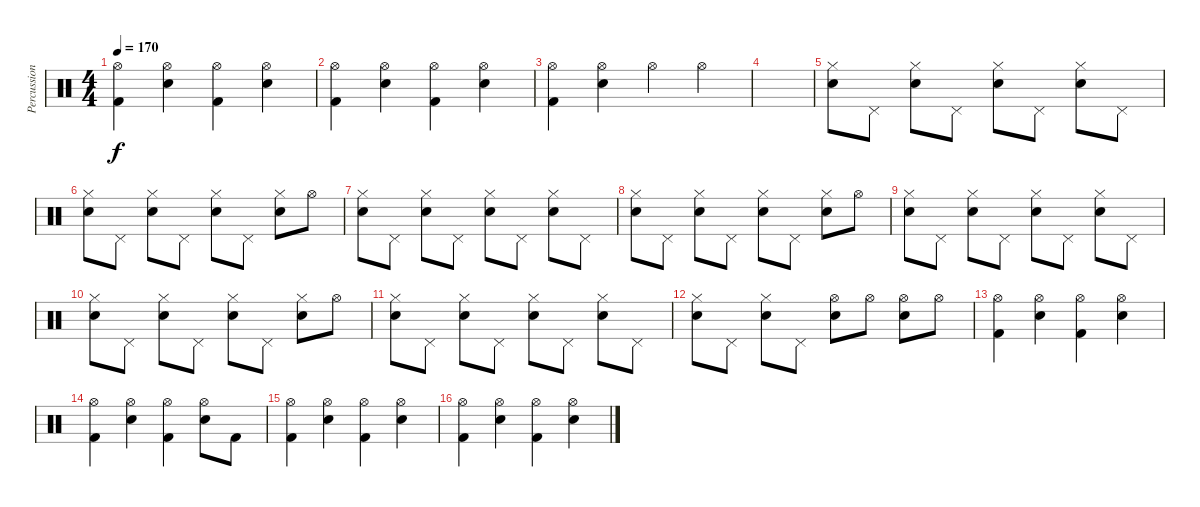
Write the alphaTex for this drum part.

\track ("Percussion" "Percussion") {instrument percussion}
\staff {score}
\articulation defaults
\ts (4 4)
\tempo 170
\clef neutral
\ks c
("Hi-Hat (open)" "Kick (hit) 2").4{dy f} ("Hi-Hat (open)" "Electric Snare (hit)").4 ("Hi-Hat (open)" "Kick (hit) 2").4 ("Hi-Hat (open)" "Electric Snare (hit)").4 |
("Hi-Hat (open)" "Kick (hit) 2").4 ("Hi-Hat (open)" "Electric Snare (hit)").4 ("Hi-Hat (open)" "Kick (hit) 2").4 ("Hi-Hat (open)" "Electric Snare (hit)").4 |
("Hi-Hat (open)" "Kick (hit) 2").4 ("Hi-Hat (open)" "Electric Snare (hit)").4 "Hi-Hat (open)".4 "Hi-Hat (open)".4 |
|
("Hi-Hat (closed)" "Electric Snare (hit)").8 "Pedal Hi-Hat (hit)".8 ("Hi-Hat (closed)" "Electric Snare (hit)").8 "Pedal Hi-Hat (hit)".8 ("Hi-Hat (closed)" "Electric Snare (hit)").8 "Pedal Hi-Hat (hit)".8 ("Hi-Hat (closed)" "Electric Snare (hit)").8 "Pedal Hi-Hat (hit)".8 |
("Hi-Hat (closed)" "Electric Snare (hit)").8 "Pedal Hi-Hat (hit)".8 ("Hi-Hat (closed)" "Electric Snare (hit)").8 "Pedal Hi-Hat (hit)".8 ("Hi-Hat (closed)" "Electric Snare (hit)").8 "Pedal Hi-Hat (hit)".8 ("Hi-Hat (closed)" "Electric Snare (hit)").8 "Hi-Hat (open)".8 |
("Hi-Hat (closed)" "Electric Snare (hit)").8 "Pedal Hi-Hat (hit)".8 ("Hi-Hat (closed)" "Electric Snare (hit)").8 "Pedal Hi-Hat (hit)".8 ("Hi-Hat (closed)" "Electric Snare (hit)").8 "Pedal Hi-Hat (hit)".8 ("Hi-Hat (closed)" "Electric Snare (hit)").8 "Pedal Hi-Hat (hit)".8 |
("Hi-Hat (closed)" "Electric Snare (hit)").8 "Pedal Hi-Hat (hit)".8 ("Hi-Hat (closed)" "Electric Snare (hit)").8 "Pedal Hi-Hat (hit)".8 ("Hi-Hat (closed)" "Electric Snare (hit)").8 "Pedal Hi-Hat (hit)".8 ("Hi-Hat (closed)" "Electric Snare (hit)").8 "Hi-Hat (open)".8 |
("Hi-Hat (closed)" "Electric Snare (hit)").8 "Pedal Hi-Hat (hit)".8 ("Hi-Hat (closed)" "Electric Snare (hit)").8 "Pedal Hi-Hat (hit)".8 ("Hi-Hat (closed)" "Electric Snare (hit)").8 "Pedal Hi-Hat (hit)".8 ("Hi-Hat (closed)" "Electric Snare (hit)").8 "Pedal Hi-Hat (hit)".8 |
("Hi-Hat (closed)" "Electric Snare (hit)").8 "Pedal Hi-Hat (hit)".8 ("Hi-Hat (closed)" "Electric Snare (hit)").8 "Pedal Hi-Hat (hit)".8 ("Hi-Hat (closed)" "Electric Snare (hit)").8 "Pedal Hi-Hat (hit)".8 ("Hi-Hat (closed)" "Electric Snare (hit)").8 "Hi-Hat (open)".8 |
("Hi-Hat (closed)" "Electric Snare (hit)").8 "Pedal Hi-Hat (hit)".8 ("Hi-Hat (closed)" "Electric Snare (hit)").8 "Pedal Hi-Hat (hit)".8 ("Hi-Hat (closed)" "Electric Snare (hit)").8 "Pedal Hi-Hat (hit)".8 ("Hi-Hat (closed)" "Electric Snare (hit)").8 "Pedal Hi-Hat (hit)".8 |
("Hi-Hat (closed)" "Electric Snare (hit)").8 "Pedal Hi-Hat (hit)".8 ("Hi-Hat (closed)" "Electric Snare (hit)").8 "Pedal Hi-Hat (hit)".8 ("Hi-Hat (open)" "Electric Snare (hit)").8 "Hi-Hat (open)".8 ("Hi-Hat (open)" "Electric Snare (hit)").8 "Hi-Hat (open)".8 |
("Hi-Hat (open)" "Kick (hit) 2").4 ("Hi-Hat (open)" "Electric Snare (hit)").4 ("Hi-Hat (open)" "Kick (hit) 2").4 ("Hi-Hat (open)" "Electric Snare (hit)").4 |
("Hi-Hat (open)" "Kick (hit) 2").4 ("Hi-Hat (open)" "Electric Snare (hit)").4 ("Hi-Hat (open)" "Kick (hit) 2").4 ("Hi-Hat (open)" "Electric Snare (hit)").8 "Kick (hit) 2".8 |
("Hi-Hat (open)" "Kick (hit) 2").4 ("Hi-Hat (open)" "Electric Snare (hit)").4 ("Hi-Hat (open)" "Kick (hit) 2").4 ("Hi-Hat (open)" "Electric Snare (hit)").4 |
("Hi-Hat (open)" "Kick (hit) 2").4 ("Hi-Hat (open)" "Electric Snare (hit)").4 ("Hi-Hat (open)" "Kick (hit) 2").4 ("Hi-Hat (open)" "Electric Snare (hit)").4
